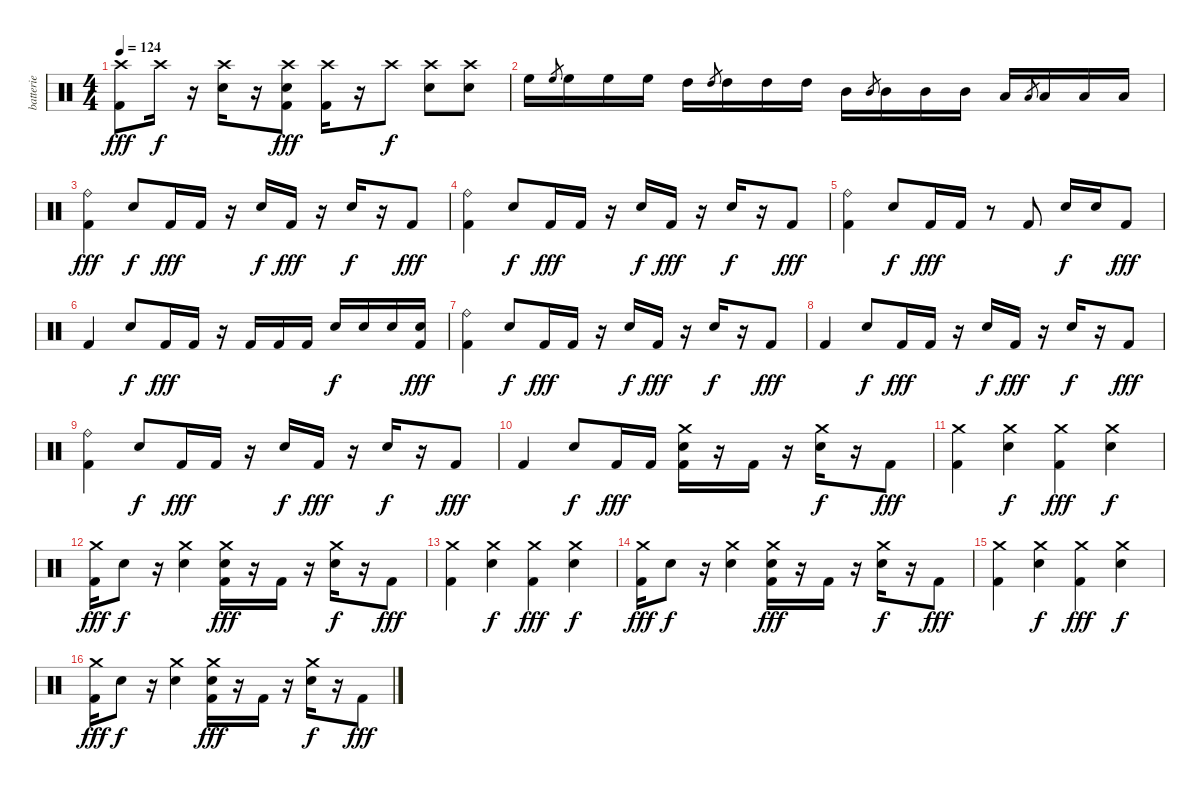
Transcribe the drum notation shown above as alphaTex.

\track ("batterie" "batterie") {instrument percussion}
\staff {score}
\articulation defaults
\ts (4 4)
\tempo 124
\clef neutral
\ks c
("Crash high (hit)" "Kick (hit) 2").8{dy fff} "Crash high (hit)".16{dy f} r.16 ("Crash high (hit)" "Electric Snare (hit)").16 r.16 ("Crash high (hit)" "Electric Snare (hit)" "Kick (hit) 2").8{dy fff} ("Crash high (hit)" "Kick (hit) 2").16 r.16 "Crash high (hit)".8{dy f} ("Crash high (hit)" "Electric Snare (hit)").8 ("Crash high (hit)" "Electric Snare (hit)").8 |
"High Floor Tom (hit)".16 "High Floor Tom (hit)".8{gr} "High Floor Tom (hit)".16 "High Floor Tom (hit)".16 "High Floor Tom (hit)".16 "High Tom (hit)".16 "High Tom (hit)".8{gr} "High Tom (hit)".16 "High Tom (hit)".16 "High Tom (hit)".16 "Mid Tom (hit)".16 "Mid Tom (hit)".8{gr} "Mid Tom (hit)".16 "Mid Tom (hit)".16 "Mid Tom (hit)".16 "Low Tom (hit)".16 "Low Tom (hit)".8{gr} "Low Tom (hit)".16 "Low Tom (hit)".16 "Low Tom (hit)".16 |
("Ride (bell)" "Kick (hit) 2").4{dy fff} "Electric Snare (hit)".8{dy f} "Kick (hit) 2".16{dy fff} "Kick (hit) 2".16 r.16 "Electric Snare (hit)".16{dy f} "Kick (hit) 2".16{dy fff} r.16 "Electric Snare (hit)".16{dy f} r.16 "Kick (hit) 2".8{dy fff} |
("Ride (bell)" "Kick (hit) 2").4 "Electric Snare (hit)".8{dy f} "Kick (hit) 2".16{dy fff} "Kick (hit) 2".16 r.16 "Electric Snare (hit)".16{dy f} "Kick (hit) 2".16{dy fff} r.16 "Electric Snare (hit)".16{dy f} r.16 "Kick (hit) 2".8{dy fff} |
("Ride (bell)" "Kick (hit) 2").4 "Electric Snare (hit)".8{dy f} "Kick (hit) 2".16{dy fff} "Kick (hit) 2".16 r.8 "Kick (hit) 2".8 "Electric Snare (hit)".16{dy f} "Electric Snare (hit)".16 "Kick (hit) 2".8{dy fff} |
"Kick (hit) 2".4 "Electric Snare (hit)".8{dy f} "Kick (hit) 2".16{dy fff} "Kick (hit) 2".16 r.16 "Kick (hit) 2".16 "Kick (hit) 2".16 "Kick (hit) 2".16 "Electric Snare (hit)".16{dy f} "Electric Snare (hit)".16 "Electric Snare (hit)".16 ("Electric Snare (hit)" "Kick (hit) 2").16{dy fff} |
("Ride (bell)" "Kick (hit) 2").4 "Electric Snare (hit)".8{dy f} "Kick (hit) 2".16{dy fff} "Kick (hit) 2".16 r.16 "Electric Snare (hit)".16{dy f} "Kick (hit) 2".16{dy fff} r.16 "Electric Snare (hit)".16{dy f} r.16 "Kick (hit) 2".8{dy fff} |
"Kick (hit) 2".4 "Electric Snare (hit)".8{dy f} "Kick (hit) 2".16{dy fff} "Kick (hit) 2".16 r.16 "Electric Snare (hit)".16{dy f} "Kick (hit) 2".16{dy fff} r.16 "Electric Snare (hit)".16{dy f} r.16 "Kick (hit) 2".8{dy fff} |
("Ride (bell)" "Kick (hit) 2").4 "Electric Snare (hit)".8{dy f} "Kick (hit) 2".16{dy fff} "Kick (hit) 2".16 r.16 "Electric Snare (hit)".16{dy f} "Kick (hit) 2".16{dy fff} r.16 "Electric Snare (hit)".16{dy f} r.16 "Kick (hit) 2".8{dy fff} |
"Kick (hit) 2".4 "Electric Snare (hit)".8{dy f} "Kick (hit) 2".16{dy fff} "Kick (hit) 2".16 ("Crash medium (hit)" "Electric Snare (hit)" "Kick (hit) 2").16 r.16 "Kick (hit) 2".16 r.16 ("Crash medium (hit)" "Electric Snare (hit)").16{dy f} r.16 "Kick (hit) 2".8{dy fff} |
("Crash medium (hit)" "Kick (hit) 2").4 ("Crash medium (hit)" "Electric Snare (hit)").4{dy f} ("Crash medium (hit)" "Kick (hit) 2").4{dy fff} ("Crash medium (hit)" "Electric Snare (hit)").4{dy f} |
("Crash medium (hit)" "Kick (hit) 2").16{dy fff} "Electric Snare (hit)".8{dy f} r.16 ("Crash medium (hit)" "Electric Snare (hit)").4 ("Crash medium (hit)" "Electric Snare (hit)" "Kick (hit) 2").16{dy fff} r.16 "Kick (hit) 2".16 r.16 ("Crash medium (hit)" "Electric Snare (hit)").16{dy f} r.16 "Kick (hit) 2".8{dy fff} |
("Crash medium (hit)" "Kick (hit) 2").4 ("Crash medium (hit)" "Electric Snare (hit)").4{dy f} ("Crash medium (hit)" "Kick (hit) 2").4{dy fff} ("Crash medium (hit)" "Electric Snare (hit)").4{dy f} |
("Crash medium (hit)" "Kick (hit) 2").16{dy fff} "Electric Snare (hit)".8{dy f} r.16 ("Crash medium (hit)" "Electric Snare (hit)").4 ("Crash medium (hit)" "Electric Snare (hit)" "Kick (hit) 2").16{dy fff} r.16 "Kick (hit) 2".16 r.16 ("Crash medium (hit)" "Electric Snare (hit)").16{dy f} r.16 "Kick (hit) 2".8{dy fff} |
("Crash medium (hit)" "Kick (hit) 2").4 ("Crash medium (hit)" "Electric Snare (hit)").4{dy f} ("Crash medium (hit)" "Kick (hit) 2").4{dy fff} ("Crash medium (hit)" "Electric Snare (hit)").4{dy f} |
("Crash medium (hit)" "Kick (hit) 2").16{dy fff} "Electric Snare (hit)".8{dy f} r.16 ("Crash medium (hit)" "Electric Snare (hit)").4 ("Crash medium (hit)" "Electric Snare (hit)" "Kick (hit) 2").16{dy fff} r.16 "Kick (hit) 2".16 r.16 ("Crash medium (hit)" "Electric Snare (hit)").16{dy f} r.16 "Kick (hit) 2".8{dy fff}
